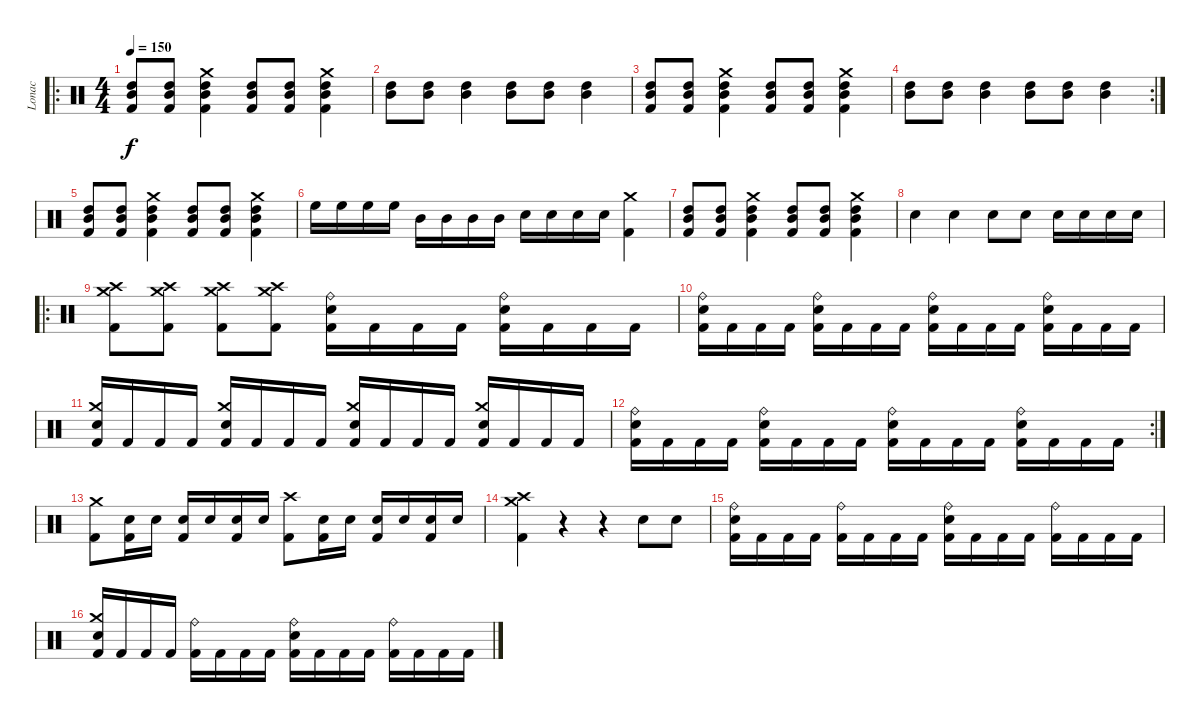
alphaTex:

\track ("Lonac" "Lonac") {instrument percussion}
\staff {score}
\articulation defaults
\ro
\ts (4 4)
\tempo 150
\clef neutral
\ks c
("Kick (hit) 2" "Mid Tom (hit)" "High Tom (hit)").8{dy f} ("Kick (hit) 2" "Mid Tom (hit)" "High Tom (hit)").8 ("Kick (hit) 2" "Mid Tom (hit)" "High Tom (hit)" "Crash medium (hit)").4 ("Kick (hit) 2" "Mid Tom (hit)" "High Tom (hit)").8 ("Kick (hit) 2" "Mid Tom (hit)" "High Tom (hit)").8 ("Kick (hit) 2" "Mid Tom (hit)" "High Tom (hit)" "Crash medium (hit)").4 |
("Mid Tom (hit)" "High Tom (hit)").8 ("Mid Tom (hit)" "High Tom (hit)").8 ("Mid Tom (hit)" "High Tom (hit)").4 ("Mid Tom (hit)" "High Tom (hit)").8 ("Mid Tom (hit)" "High Tom (hit)").8 ("Mid Tom (hit)" "High Tom (hit)").4 |
("Kick (hit) 2" "Mid Tom (hit)" "High Tom (hit)").8 ("Kick (hit) 2" "Mid Tom (hit)" "High Tom (hit)").8 ("Kick (hit) 2" "Mid Tom (hit)" "High Tom (hit)" "Crash medium (hit)").4 ("Kick (hit) 2" "Mid Tom (hit)" "High Tom (hit)").8 ("Kick (hit) 2" "Mid Tom (hit)" "High Tom (hit)").8 ("Kick (hit) 2" "Mid Tom (hit)" "High Tom (hit)" "Crash medium (hit)").4 |
\rc 2
("Mid Tom (hit)" "High Tom (hit)").8 ("Mid Tom (hit)" "High Tom (hit)").8 ("Mid Tom (hit)" "High Tom (hit)").4 ("Mid Tom (hit)" "High Tom (hit)").8 ("Mid Tom (hit)" "High Tom (hit)").8 ("Mid Tom (hit)" "High Tom (hit)").4 |
("Kick (hit) 2" "Mid Tom (hit)" "High Tom (hit)").8 ("Kick (hit) 2" "Mid Tom (hit)" "High Tom (hit)").8 ("Kick (hit) 2" "Mid Tom (hit)" "High Tom (hit)" "Crash medium (hit)").4 ("Kick (hit) 2" "Mid Tom (hit)" "High Tom (hit)").8 ("Kick (hit) 2" "Mid Tom (hit)" "High Tom (hit)").8 ("Kick (hit) 2" "Mid Tom (hit)" "High Tom (hit)" "Crash medium (hit)").4 |
"High Floor Tom (hit)".16 "High Floor Tom (hit)".16 "High Floor Tom (hit)".16 "High Floor Tom (hit)".16 "Mid Tom (hit)".16 "Mid Tom (hit)".16 "Mid Tom (hit)".16 "Mid Tom (hit)".16 "Snare (hit) 2".16 "Snare (hit) 2".16 "Snare (hit) 2".16 "Snare (hit) 2".16 ("Kick (hit) 2" "Crash medium (hit)").4 |
("Kick (hit) 2" "Mid Tom (hit)" "High Tom (hit)").8 ("Kick (hit) 2" "Mid Tom (hit)" "High Tom (hit)").8 ("Kick (hit) 2" "Mid Tom (hit)" "High Tom (hit)" "Crash medium (hit)").4 ("Kick (hit) 2" "Mid Tom (hit)" "High Tom (hit)").8 ("Kick (hit) 2" "Mid Tom (hit)" "High Tom (hit)").8 ("Kick (hit) 2" "Mid Tom (hit)" "High Tom (hit)" "Crash medium (hit)").4 |
"Snare (hit) 2".4 "Snare (hit) 2".4 "Snare (hit) 2".8 "Snare (hit) 2".8 "Snare (hit) 2".16 "Snare (hit) 2".16 "Snare (hit) 2".16 "Snare (hit) 2".16 |
\ro
("Crash high (hit)" "Crash medium (hit)" "Kick (hit) 2").8 ("Crash high (hit)" "Crash medium (hit)" "Kick (hit) 2").8 ("Crash high (hit)" "Crash medium (hit)" "Kick (hit) 2").8 ("Crash high (hit)" "Crash medium (hit)" "Kick (hit) 2").8 ("Kick (hit) 2" "Snare (hit) 2" "Ride (bell)").16 "Kick (hit) 2".16 "Kick (hit) 2".16 "Kick (hit) 2".16 ("Kick (hit) 2" "Snare (hit) 2" "Ride (bell)").16 "Kick (hit) 2".16 "Kick (hit) 2".16 "Kick (hit) 2".16 |
("Kick (hit) 2" "Snare (hit) 2" "Ride (bell)").16 "Kick (hit) 2".16 "Kick (hit) 2".16 "Kick (hit) 2".16 ("Kick (hit) 2" "Snare (hit) 2" "Ride (bell)").16 "Kick (hit) 2".16 "Kick (hit) 2".16 "Kick (hit) 2".16 ("Kick (hit) 2" "Snare (hit) 2" "Ride (bell)").16 "Kick (hit) 2".16 "Kick (hit) 2".16 "Kick (hit) 2".16 ("Kick (hit) 2" "Snare (hit) 2" "Ride (bell)").16 "Kick (hit) 2".16 "Kick (hit) 2".16 "Kick (hit) 2".16 |
("Kick (hit) 2" "Snare (hit) 2" "Crash medium (hit)").16 "Kick (hit) 2".16 "Kick (hit) 2".16 "Kick (hit) 2".16 ("Kick (hit) 2" "Snare (hit) 2" "Crash medium (hit)").16 "Kick (hit) 2".16 "Kick (hit) 2".16 "Kick (hit) 2".16 ("Kick (hit) 2" "Snare (hit) 2" "Crash medium (hit)").16 "Kick (hit) 2".16 "Kick (hit) 2".16 "Kick (hit) 2".16 ("Kick (hit) 2" "Snare (hit) 2" "Crash medium (hit)").16 "Kick (hit) 2".16 "Kick (hit) 2".16 "Kick (hit) 2".16 |
\rc 2
("Kick (hit) 2" "Snare (hit) 2" "Ride (bell)").16 "Kick (hit) 2".16 "Kick (hit) 2".16 "Kick (hit) 2".16 ("Kick (hit) 2" "Snare (hit) 2" "Ride (bell)").16 "Kick (hit) 2".16 "Kick (hit) 2".16 "Kick (hit) 2".16 ("Kick (hit) 2" "Snare (hit) 2" "Ride (bell)").16 "Kick (hit) 2".16 "Kick (hit) 2".16 "Kick (hit) 2".16 ("Kick (hit) 2" "Snare (hit) 2" "Ride (bell)").16 "Kick (hit) 2".16 "Kick (hit) 2".16 "Kick (hit) 2".16 |
("Kick (hit) 2" "Crash medium (hit)").8 ("Kick (hit) 2" "Snare (hit) 2").16 "Snare (hit) 2".16 ("Kick (hit) 2" "Snare (hit) 2").16 "Snare (hit) 2".16 ("Kick (hit) 2" "Snare (hit) 2").16 "Snare (hit) 2".16 ("Kick (hit) 2" "Crash high (hit)").8 ("Kick (hit) 2" "Snare (hit) 2").16 "Snare (hit) 2".16 ("Kick (hit) 2" "Snare (hit) 2").16 "Snare (hit) 2".16 ("Kick (hit) 2" "Snare (hit) 2").16 "Snare (hit) 2".16 |
("Kick (hit) 2" "Crash high (hit)" "Crash medium (hit)").4 r.4 r.4 "Snare (hit) 2".8 "Snare (hit) 2".8 |
("Kick (hit) 2" "Snare (hit) 2" "Ride (bell)").16 "Kick (hit) 2".16 "Kick (hit) 2".16 "Kick (hit) 2".16 ("Kick (hit) 2" "Ride (bell)").16 "Kick (hit) 2".16 "Kick (hit) 2".16 "Kick (hit) 2".16 ("Kick (hit) 2" "Snare (hit) 2" "Ride (bell)").16 "Kick (hit) 2".16 "Kick (hit) 2".16 "Kick (hit) 2".16 ("Kick (hit) 2" "Ride (bell)").16 "Kick (hit) 2".16 "Kick (hit) 2".16 "Kick (hit) 2".16 |
("Kick (hit) 2" "Snare (hit) 2" "Crash medium (hit)").16 "Kick (hit) 2".16 "Kick (hit) 2".16 "Kick (hit) 2".16 ("Kick (hit) 2" "Ride (bell)").16 "Kick (hit) 2".16 "Kick (hit) 2".16 "Kick (hit) 2".16 ("Kick (hit) 2" "Snare (hit) 2" "Ride (bell)").16 "Kick (hit) 2".16 "Kick (hit) 2".16 "Kick (hit) 2".16 ("Kick (hit) 2" "Ride (bell)").16 "Kick (hit) 2".16 "Kick (hit) 2".16 "Kick (hit) 2".16
